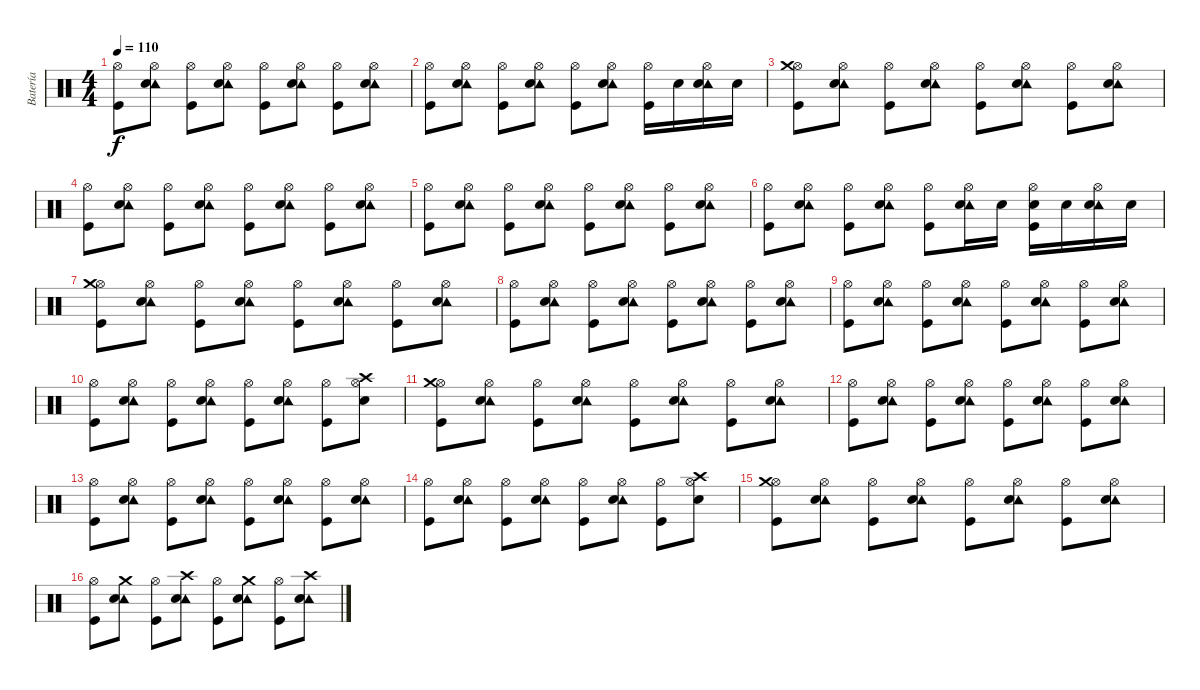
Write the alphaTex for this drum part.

\track ("Batería" "Batería") {instrument percussion}
\staff {score}
\articulation defaults
\ts (4 4)
\tempo 110
\clef neutral
\ks c
("Hi-Hat (open)" "Kick (hit)").8{dy f} ("Hi-Hat (open)" "Tambourine (hit)" "Electric Snare (hit)").8 ("Hi-Hat (open)" "Kick (hit)").8 ("Hi-Hat (open)" "Tambourine (hit)" "Electric Snare (hit)").8 ("Hi-Hat (open)" "Kick (hit)").8 ("Hi-Hat (open)" "Tambourine (hit)" "Electric Snare (hit)").8 ("Hi-Hat (open)" "Kick (hit)").8 ("Hi-Hat (open)" "Tambourine (hit)" "Electric Snare (hit)").8 |
("Hi-Hat (open)" "Kick (hit)").8 ("Hi-Hat (open)" "Tambourine (hit)" "Electric Snare (hit)").8 ("Hi-Hat (open)" "Kick (hit)").8 ("Hi-Hat (open)" "Tambourine (hit)" "Electric Snare (hit)").8 ("Hi-Hat (open)" "Kick (hit)").8 ("Hi-Hat (open)" "Tambourine (hit)" "Electric Snare (hit)").8 ("Hi-Hat (open)" "Kick (hit)").16 "Electric Snare (hit)".16 ("Hi-Hat (open)" "Tambourine (hit)" "Electric Snare (hit)").16 "Electric Snare (hit)".16 |
("Hi-Hat (open)" "Crash medium (hit)" "Kick (hit)").8 ("Hi-Hat (open)" "Tambourine (hit)" "Electric Snare (hit)").8 ("Hi-Hat (open)" "Kick (hit)").8 ("Hi-Hat (open)" "Tambourine (hit)" "Electric Snare (hit)").8 ("Hi-Hat (open)" "Kick (hit)").8 ("Hi-Hat (open)" "Tambourine (hit)" "Electric Snare (hit)").8 ("Hi-Hat (open)" "Kick (hit)").8 ("Hi-Hat (open)" "Tambourine (hit)" "Electric Snare (hit)").8 |
("Hi-Hat (open)" "Kick (hit)").8 ("Hi-Hat (open)" "Tambourine (hit)" "Electric Snare (hit)").8 ("Hi-Hat (open)" "Kick (hit)").8 ("Hi-Hat (open)" "Tambourine (hit)" "Electric Snare (hit)").8 ("Hi-Hat (open)" "Kick (hit)").8 ("Hi-Hat (open)" "Tambourine (hit)" "Electric Snare (hit)").8 ("Hi-Hat (open)" "Kick (hit)").8 ("Hi-Hat (open)" "Tambourine (hit)" "Electric Snare (hit)").8 |
("Hi-Hat (open)" "Kick (hit)").8 ("Hi-Hat (open)" "Tambourine (hit)" "Electric Snare (hit)").8 ("Hi-Hat (open)" "Kick (hit)").8 ("Hi-Hat (open)" "Tambourine (hit)" "Electric Snare (hit)").8 ("Hi-Hat (open)" "Kick (hit)").8 ("Hi-Hat (open)" "Tambourine (hit)" "Electric Snare (hit)").8 ("Hi-Hat (open)" "Kick (hit)").8 ("Hi-Hat (open)" "Tambourine (hit)" "Electric Snare (hit)").8 |
("Hi-Hat (open)" "Kick (hit)").8 ("Hi-Hat (open)" "Tambourine (hit)" "Electric Snare (hit)").8 ("Hi-Hat (open)" "Kick (hit)").8 ("Hi-Hat (open)" "Tambourine (hit)" "Electric Snare (hit)").8 ("Hi-Hat (open)" "Kick (hit)").8 ("Hi-Hat (open)" "Tambourine (hit)" "Electric Snare (hit)").16 "Electric Snare (hit)".16 ("Hi-Hat (open)" "Electric Snare (hit)" "Kick (hit)").16 "Electric Snare (hit)".16 ("Hi-Hat (open)" "Tambourine (hit)" "Electric Snare (hit)").16 "Electric Snare (hit)".16 |
("Hi-Hat (open)" "Crash medium (hit)" "Kick (hit)").8 ("Hi-Hat (open)" "Tambourine (hit)" "Electric Snare (hit)").8 ("Hi-Hat (open)" "Kick (hit)").8 ("Hi-Hat (open)" "Tambourine (hit)" "Electric Snare (hit)").8 ("Hi-Hat (open)" "Kick (hit)").8 ("Hi-Hat (open)" "Tambourine (hit)" "Electric Snare (hit)").8 ("Hi-Hat (open)" "Kick (hit)").8 ("Hi-Hat (open)" "Tambourine (hit)" "Electric Snare (hit)").8 |
("Hi-Hat (open)" "Kick (hit)").8 ("Hi-Hat (open)" "Tambourine (hit)" "Electric Snare (hit)").8 ("Hi-Hat (open)" "Kick (hit)").8 ("Hi-Hat (open)" "Tambourine (hit)" "Electric Snare (hit)").8 ("Hi-Hat (open)" "Kick (hit)").8 ("Hi-Hat (open)" "Tambourine (hit)" "Electric Snare (hit)").8 ("Hi-Hat (open)" "Kick (hit)").8 ("Hi-Hat (open)" "Tambourine (hit)" "Electric Snare (hit)").8 |
("Hi-Hat (open)" "Kick (hit)").8 ("Hi-Hat (open)" "Tambourine (hit)" "Electric Snare (hit)").8 ("Hi-Hat (open)" "Kick (hit)").8 ("Hi-Hat (open)" "Tambourine (hit)" "Electric Snare (hit)").8 ("Hi-Hat (open)" "Kick (hit)").8 ("Hi-Hat (open)" "Tambourine (hit)" "Electric Snare (hit)").8 ("Hi-Hat (open)" "Kick (hit)").8 ("Hi-Hat (open)" "Tambourine (hit)" "Electric Snare (hit)").8 |
("Hi-Hat (open)" "Kick (hit)").8 ("Hi-Hat (open)" "Tambourine (hit)" "Electric Snare (hit)").8 ("Hi-Hat (open)" "Kick (hit)").8 ("Hi-Hat (open)" "Tambourine (hit)" "Electric Snare (hit)").8 ("Hi-Hat (open)" "Kick (hit)").8 ("Hi-Hat (open)" "Tambourine (hit)" "Electric Snare (hit)").8 ("Hi-Hat (open)" "Kick (hit)").8 ("Hi-Hat (open)" "Crash high (hit)" "Electric Snare (hit)").8 |
("Hi-Hat (open)" "Crash medium (hit)" "Kick (hit)").8 ("Hi-Hat (open)" "Tambourine (hit)" "Electric Snare (hit)").8 ("Hi-Hat (open)" "Kick (hit)").8 ("Hi-Hat (open)" "Tambourine (hit)" "Electric Snare (hit)").8 ("Hi-Hat (open)" "Kick (hit)").8 ("Hi-Hat (open)" "Tambourine (hit)" "Electric Snare (hit)").8 ("Hi-Hat (open)" "Kick (hit)").8 ("Hi-Hat (open)" "Tambourine (hit)" "Electric Snare (hit)").8 |
("Hi-Hat (open)" "Kick (hit)").8 ("Hi-Hat (open)" "Tambourine (hit)" "Electric Snare (hit)").8 ("Hi-Hat (open)" "Kick (hit)").8 ("Hi-Hat (open)" "Tambourine (hit)" "Electric Snare (hit)").8 ("Hi-Hat (open)" "Kick (hit)").8 ("Hi-Hat (open)" "Tambourine (hit)" "Electric Snare (hit)").8 ("Hi-Hat (open)" "Kick (hit)").8 ("Hi-Hat (open)" "Tambourine (hit)" "Electric Snare (hit)").8 |
("Hi-Hat (open)" "Kick (hit)").8 ("Hi-Hat (open)" "Tambourine (hit)" "Electric Snare (hit)").8 ("Hi-Hat (open)" "Kick (hit)").8 ("Hi-Hat (open)" "Tambourine (hit)" "Electric Snare (hit)").8 ("Hi-Hat (open)" "Kick (hit)").8 ("Hi-Hat (open)" "Tambourine (hit)" "Electric Snare (hit)").8 ("Hi-Hat (open)" "Kick (hit)").8 ("Hi-Hat (open)" "Tambourine (hit)" "Electric Snare (hit)").8 |
("Hi-Hat (open)" "Kick (hit)").8 ("Hi-Hat (open)" "Tambourine (hit)" "Electric Snare (hit)").8 ("Hi-Hat (open)" "Kick (hit)").8 ("Hi-Hat (open)" "Tambourine (hit)" "Electric Snare (hit)").8 ("Hi-Hat (open)" "Kick (hit)").8 ("Hi-Hat (open)" "Tambourine (hit)" "Electric Snare (hit)").8 ("Hi-Hat (open)" "Kick (hit)").8 ("Hi-Hat (open)" "Crash high (hit)" "Electric Snare (hit)").8 |
("Hi-Hat (open)" "Crash medium (hit)" "Kick (hit)").8 ("Hi-Hat (open)" "Tambourine (hit)" "Electric Snare (hit)").8 ("Hi-Hat (open)" "Kick (hit)").8 ("Hi-Hat (open)" "Tambourine (hit)" "Electric Snare (hit)").8 ("Hi-Hat (open)" "Kick (hit)").8 ("Hi-Hat (open)" "Tambourine (hit)" "Electric Snare (hit)").8 ("Hi-Hat (open)" "Kick (hit)").8 ("Hi-Hat (open)" "Tambourine (hit)" "Electric Snare (hit)").8 |
("Hi-Hat (open)" "Kick (hit)").8 ("Crash medium (hit)" "Tambourine (hit)" "Electric Snare (hit)").8 ("Hi-Hat (open)" "Kick (hit)").8 ("Crash high (hit)" "Tambourine (hit)" "Electric Snare (hit)").8 ("Hi-Hat (open)" "Kick (hit)").8 ("Crash medium (hit)" "Tambourine (hit)" "Electric Snare (hit)").8 ("Hi-Hat (open)" "Kick (hit)").8 ("Crash high (hit)" "Tambourine (hit)" "Electric Snare (hit)").8
